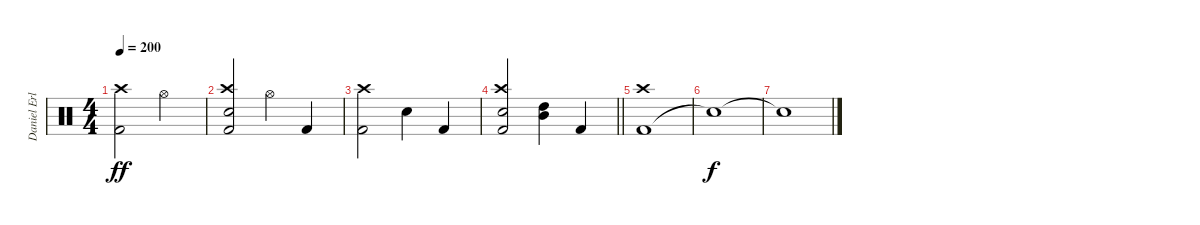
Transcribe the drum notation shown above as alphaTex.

\track ("Daniel Erlandsson" "Daniel Erl") {instrument percussion}
\staff {score}
\articulation defaults
\ts (4 4)
\tempo 200
\clef neutral
\ks c
("Kick (hit) 2" "Crash high (hit)").2{dy ff} "Hi-Hat (open)".2 |
("Kick (hit) 2" "Snare (hit) 2" "Crash high (hit)").2 "Hi-Hat (open)".4 "Kick (hit) 2".4 |
("Kick (hit) 2" "Crash high (hit)").2 "Snare (hit) 2".4 "Kick (hit) 2".4 |
\barLineRight lightlight
("Kick (hit) 2" "Snare (hit) 2" "Crash high (hit)").2 ("Mid Tom (hit)" "High Tom (hit)").4 "Kick (hit) 2".4 |
("Kick (hit) 2" "Crash high (hit)").1 |
"Snare (hit)"{t}.1{dy f} |
"Snare (hit)"{t}.1
